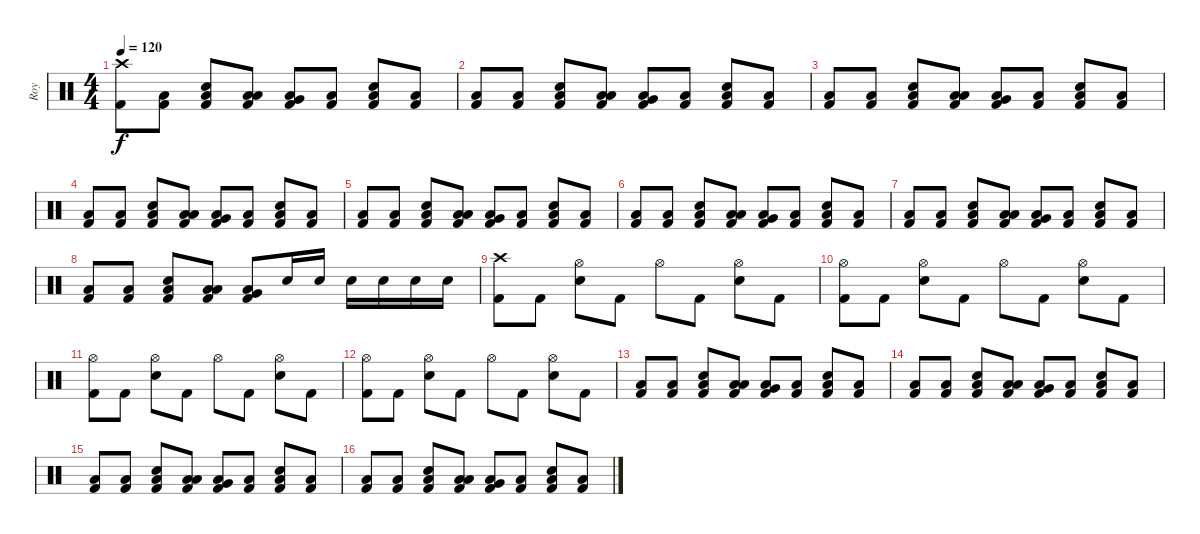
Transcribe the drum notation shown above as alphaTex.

\track ("Roy" "Roy") {instrument percussion}
\staff {score}
\articulation defaults
\ts (4 4)
\tempo 120
\tempo 142
\tempo 120
\clef neutral
\ks c
("Crash high (hit)" "Kick (hit) 2").8{dy f} ("Low Floor Tom (hit)" "Kick (hit) 2").8 ("Electric Snare (hit)" "Low Floor Tom (hit)" "Kick (hit) 2").8 ("Low Tom (hit)" "Low Floor Tom (hit)" "Kick (hit) 2").8 ("Very Low Tom (hit)" "Low Floor Tom (hit)" "Kick (hit) 2").8 ("Low Floor Tom (hit)" "Kick (hit) 2").8 ("Electric Snare (hit)" "Low Floor Tom (hit)" "Kick (hit) 2").8 ("Low Floor Tom (hit)" "Kick (hit) 2").8 |
("Low Floor Tom (hit)" "Kick (hit) 2").8 ("Low Floor Tom (hit)" "Kick (hit) 2").8 ("Electric Snare (hit)" "Low Floor Tom (hit)" "Kick (hit) 2").8 ("Low Tom (hit)" "Low Floor Tom (hit)" "Kick (hit) 2").8 ("Very Low Tom (hit)" "Low Floor Tom (hit)" "Kick (hit) 2").8 ("Low Floor Tom (hit)" "Kick (hit) 2").8 ("Electric Snare (hit)" "Low Floor Tom (hit)" "Kick (hit) 2").8 ("Low Floor Tom (hit)" "Kick (hit) 2").8 |
("Low Floor Tom (hit)" "Kick (hit) 2").8 ("Low Floor Tom (hit)" "Kick (hit) 2").8 ("Electric Snare (hit)" "Low Floor Tom (hit)" "Kick (hit) 2").8 ("Low Tom (hit)" "Low Floor Tom (hit)" "Kick (hit) 2").8 ("Very Low Tom (hit)" "Low Floor Tom (hit)" "Kick (hit) 2").8 ("Low Floor Tom (hit)" "Kick (hit) 2").8 ("Electric Snare (hit)" "Low Floor Tom (hit)" "Kick (hit) 2").8 ("Low Floor Tom (hit)" "Kick (hit) 2").8 |
("Low Floor Tom (hit)" "Kick (hit) 2").8 ("Low Floor Tom (hit)" "Kick (hit) 2").8 ("Electric Snare (hit)" "Low Floor Tom (hit)" "Kick (hit) 2").8 ("Low Tom (hit)" "Low Floor Tom (hit)" "Kick (hit) 2").8 ("Very Low Tom (hit)" "Low Floor Tom (hit)" "Kick (hit) 2").8 ("Low Floor Tom (hit)" "Kick (hit) 2").8 ("Electric Snare (hit)" "Low Floor Tom (hit)" "Kick (hit) 2").8 ("Low Floor Tom (hit)" "Kick (hit) 2").8 |
("Low Floor Tom (hit)" "Kick (hit) 2").8 ("Low Floor Tom (hit)" "Kick (hit) 2").8 ("Electric Snare (hit)" "Low Floor Tom (hit)" "Kick (hit) 2").8 ("Low Tom (hit)" "Low Floor Tom (hit)" "Kick (hit) 2").8 ("Very Low Tom (hit)" "Low Floor Tom (hit)" "Kick (hit) 2").8 ("Low Floor Tom (hit)" "Kick (hit) 2").8 ("Electric Snare (hit)" "Low Floor Tom (hit)" "Kick (hit) 2").8 ("Low Floor Tom (hit)" "Kick (hit) 2").8 |
("Low Floor Tom (hit)" "Kick (hit) 2").8 ("Low Floor Tom (hit)" "Kick (hit) 2").8 ("Electric Snare (hit)" "Low Floor Tom (hit)" "Kick (hit) 2").8 ("Low Tom (hit)" "Low Floor Tom (hit)" "Kick (hit) 2").8 ("Very Low Tom (hit)" "Low Floor Tom (hit)" "Kick (hit) 2").8 ("Low Floor Tom (hit)" "Kick (hit) 2").8 ("Electric Snare (hit)" "Low Floor Tom (hit)" "Kick (hit) 2").8 ("Low Floor Tom (hit)" "Kick (hit) 2").8 |
("Low Floor Tom (hit)" "Kick (hit) 2").8 ("Low Floor Tom (hit)" "Kick (hit) 2").8 ("Electric Snare (hit)" "Low Floor Tom (hit)" "Kick (hit) 2").8 ("Low Tom (hit)" "Low Floor Tom (hit)" "Kick (hit) 2").8 ("Very Low Tom (hit)" "Low Floor Tom (hit)" "Kick (hit) 2").8 ("Low Floor Tom (hit)" "Kick (hit) 2").8 ("Electric Snare (hit)" "Low Floor Tom (hit)" "Kick (hit) 2").8 ("Low Floor Tom (hit)" "Kick (hit) 2").8 |
("Low Floor Tom (hit)" "Kick (hit) 2").8 ("Low Floor Tom (hit)" "Kick (hit) 2").8 ("Electric Snare (hit)" "Low Floor Tom (hit)" "Kick (hit) 2").8 ("Low Tom (hit)" "Low Floor Tom (hit)" "Kick (hit) 2").8 ("Very Low Tom (hit)" "Low Floor Tom (hit)" "Kick (hit) 2").8 "Electric Snare (hit)".16 "Electric Snare (hit)".16 "Electric Snare (hit)".16 "Electric Snare (hit)".16 "Electric Snare (hit)".16 "Electric Snare (hit)".16 |
("Crash high (hit)" "Kick (hit) 2").8 "Kick (hit) 2".8 ("Hi-Hat (open)" "Electric Snare (hit)").8 "Kick (hit) 2".8 "Hi-Hat (open)".8 "Kick (hit) 2".8 ("Hi-Hat (open)" "Electric Snare (hit)").8 "Kick (hit) 2".8 |
("Hi-Hat (open)" "Kick (hit) 2").8 "Kick (hit) 2".8 ("Hi-Hat (open)" "Electric Snare (hit)").8 "Kick (hit) 2".8 "Hi-Hat (open)".8 "Kick (hit) 2".8 ("Hi-Hat (open)" "Electric Snare (hit)").8 "Kick (hit) 2".8 |
("Hi-Hat (open)" "Kick (hit) 2").8 "Kick (hit) 2".8 ("Hi-Hat (open)" "Electric Snare (hit)").8 "Kick (hit) 2".8 "Hi-Hat (open)".8 "Kick (hit) 2".8 ("Hi-Hat (open)" "Electric Snare (hit)").8 "Kick (hit) 2".8 |
("Hi-Hat (open)" "Kick (hit) 2").8 "Kick (hit) 2".8 ("Hi-Hat (open)" "Electric Snare (hit)").8 "Kick (hit) 2".8 "Hi-Hat (open)".8 "Kick (hit) 2".8 ("Hi-Hat (open)" "Electric Snare (hit)").8 "Kick (hit) 2".8 |
("Low Floor Tom (hit)" "Kick (hit) 2").8 ("Low Floor Tom (hit)" "Kick (hit) 2").8 ("Electric Snare (hit)" "Low Floor Tom (hit)" "Kick (hit) 2").8 ("Low Tom (hit)" "Low Floor Tom (hit)" "Kick (hit) 2").8 ("Very Low Tom (hit)" "Low Floor Tom (hit)" "Kick (hit) 2").8 ("Low Floor Tom (hit)" "Kick (hit) 2").8 ("Electric Snare (hit)" "Low Floor Tom (hit)" "Kick (hit) 2").8 ("Low Floor Tom (hit)" "Kick (hit) 2").8 |
("Low Floor Tom (hit)" "Kick (hit) 2").8 ("Low Floor Tom (hit)" "Kick (hit) 2").8 ("Electric Snare (hit)" "Low Floor Tom (hit)" "Kick (hit) 2").8 ("Low Tom (hit)" "Low Floor Tom (hit)" "Kick (hit) 2").8 ("Very Low Tom (hit)" "Low Floor Tom (hit)" "Kick (hit) 2").8 ("Low Floor Tom (hit)" "Kick (hit) 2").8 ("Electric Snare (hit)" "Low Floor Tom (hit)" "Kick (hit) 2").8 ("Low Floor Tom (hit)" "Kick (hit) 2").8 |
("Low Floor Tom (hit)" "Kick (hit) 2").8 ("Low Floor Tom (hit)" "Kick (hit) 2").8 ("Electric Snare (hit)" "Low Floor Tom (hit)" "Kick (hit) 2").8 ("Low Tom (hit)" "Low Floor Tom (hit)" "Kick (hit) 2").8 ("Very Low Tom (hit)" "Low Floor Tom (hit)" "Kick (hit) 2").8 ("Low Floor Tom (hit)" "Kick (hit) 2").8 ("Electric Snare (hit)" "Low Floor Tom (hit)" "Kick (hit) 2").8 ("Low Floor Tom (hit)" "Kick (hit) 2").8 |
("Low Floor Tom (hit)" "Kick (hit) 2").8 ("Low Floor Tom (hit)" "Kick (hit) 2").8 ("Electric Snare (hit)" "Low Floor Tom (hit)" "Kick (hit) 2").8 ("Low Tom (hit)" "Low Floor Tom (hit)" "Kick (hit) 2").8 ("Very Low Tom (hit)" "Low Floor Tom (hit)" "Kick (hit) 2").8 ("Low Floor Tom (hit)" "Kick (hit) 2").8 ("Electric Snare (hit)" "Low Floor Tom (hit)" "Kick (hit) 2").8 ("Low Floor Tom (hit)" "Kick (hit) 2").8
